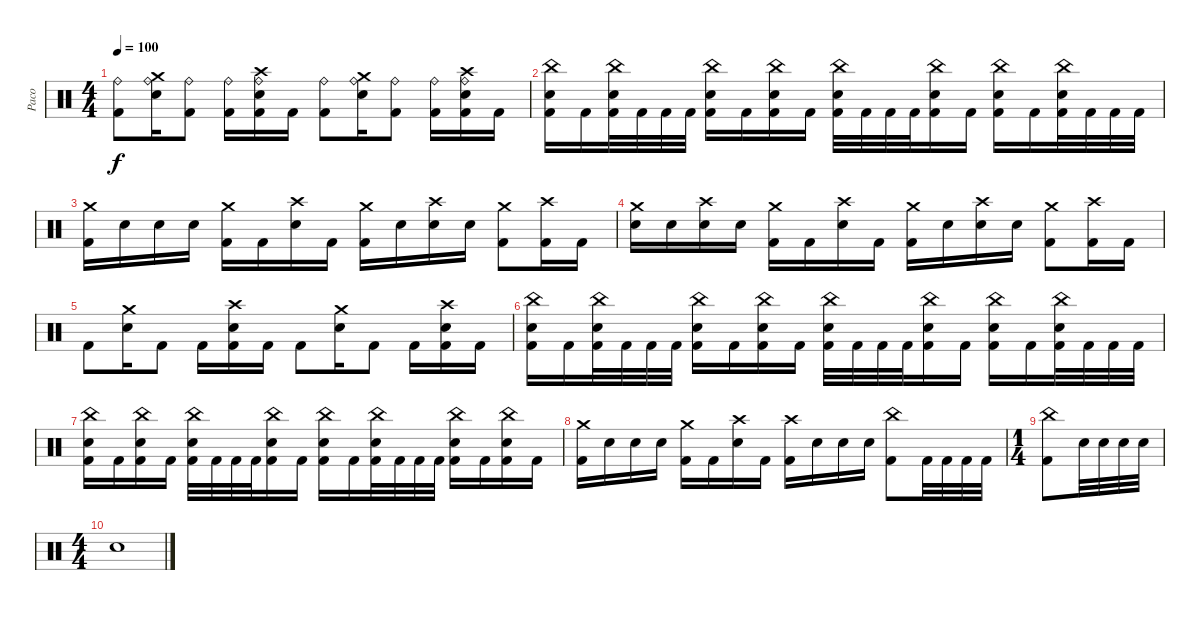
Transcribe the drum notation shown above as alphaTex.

\track ("Paco" "Paco") {instrument percussion}
\staff {score}
\articulation defaults
\ts (4 4)
\tempo 100
\clef neutral
\ks c
("Ride (bell)" "Kick (hit) 2").8{dy f} ("Crash medium (hit)" "Ride (bell)" "Electric Snare (hit)").16 ("Ride (bell)" "Kick (hit) 2").8 ("Ride (bell)" "Kick (hit) 2").16 ("Crash high (hit)" "Ride (bell)" "Electric Snare (hit)" "Kick (hit) 2").16 "Kick (hit) 2".16 ("Ride (bell)" "Kick (hit) 2").8 ("Crash medium (hit)" "Ride (bell)" "Electric Snare (hit)").16 ("Ride (bell)" "Kick (hit) 2").8 ("Ride (bell)" "Kick (hit) 2").16 ("Crash high (hit)" "Ride (bell)" "Electric Snare (hit)" "Kick (hit) 2").16 "Kick (hit) 2".16 |
("China (hit)" "Electric Snare (hit)" "Kick (hit) 2").16 "Kick (hit) 2".16 ("China (hit)" "Electric Snare (hit)" "Kick (hit) 2").32 "Kick (hit) 2".32 "Kick (hit) 2".32 "Kick (hit) 2".32 ("China (hit)" "Electric Snare (hit)" "Kick (hit) 2").16 "Kick (hit) 2".16 ("China (hit)" "Electric Snare (hit)" "Kick (hit) 2").16 "Kick (hit) 2".16 ("China (hit)" "Electric Snare (hit)" "Kick (hit) 2").32 "Kick (hit) 2".32 "Kick (hit) 2".32 "Kick (hit) 2".32 ("China (hit)" "Electric Snare (hit)" "Kick (hit) 2").16 "Kick (hit) 2".16 ("China (hit)" "Electric Snare (hit)" "Kick (hit) 2").16 "Kick (hit) 2".16 ("China (hit)" "Electric Snare (hit)" "Kick (hit) 2").32 "Kick (hit) 2".32 "Kick (hit) 2".32 "Kick (hit) 2".32 |
("Crash medium (hit)" "Kick (hit) 2").16 "Electric Snare (hit)".16 "Electric Snare (hit)".16 "Electric Snare (hit)".16 ("Crash medium (hit)" "Kick (hit) 2").16 "Kick (hit) 2".16 ("Crash high (hit)" "Electric Snare (hit)").16 "Kick (hit) 2".16 ("Crash medium (hit)" "Kick (hit) 2").16 "Electric Snare (hit)".16 ("Crash high (hit)" "Electric Snare (hit)").16 "Electric Snare (hit)".16 ("Crash medium (hit)" "Kick (hit) 2").8 ("Crash high (hit)" "Kick (hit) 2").16 "Kick (hit) 2".16 |
("Crash medium (hit)" "Electric Snare (hit)").16 "Electric Snare (hit)".16 ("Crash high (hit)" "Electric Snare (hit)").16 "Electric Snare (hit)".16 ("Crash medium (hit)" "Kick (hit) 2").16 "Kick (hit) 2".16 ("Crash high (hit)" "Electric Snare (hit)").16 "Kick (hit) 2".16 ("Crash medium (hit)" "Kick (hit) 2").16 "Electric Snare (hit)".16 ("Crash high (hit)" "Electric Snare (hit)").16 "Electric Snare (hit)".16 ("Crash medium (hit)" "Kick (hit) 2").8 ("Crash high (hit)" "Kick (hit) 2").16 "Kick (hit) 2".16 |
"Kick (hit) 2".8 ("Crash medium (hit)" "Electric Snare (hit)").16 "Kick (hit) 2".8 "Kick (hit) 2".16 ("Crash high (hit)" "Electric Snare (hit)" "Kick (hit) 2").16 "Kick (hit) 2".16 "Kick (hit) 2".8 ("Crash medium (hit)" "Electric Snare (hit)").16 "Kick (hit) 2".8 "Kick (hit) 2".16 ("Crash high (hit)" "Electric Snare (hit)" "Kick (hit) 2").16 "Kick (hit) 2".16 |
("China (hit)" "Electric Snare (hit)" "Kick (hit) 2").16 "Kick (hit) 2".16 ("China (hit)" "Electric Snare (hit)" "Kick (hit) 2").32 "Kick (hit) 2".32 "Kick (hit) 2".32 "Kick (hit) 2".32 ("China (hit)" "Electric Snare (hit)" "Kick (hit) 2").16 "Kick (hit) 2".16 ("China (hit)" "Electric Snare (hit)" "Kick (hit) 2").16 "Kick (hit) 2".16 ("China (hit)" "Electric Snare (hit)" "Kick (hit) 2").32 "Kick (hit) 2".32 "Kick (hit) 2".32 "Kick (hit) 2".32 ("China (hit)" "Electric Snare (hit)" "Kick (hit) 2").16 "Kick (hit) 2".16 ("China (hit)" "Electric Snare (hit)" "Kick (hit) 2").16 "Kick (hit) 2".16 ("China (hit)" "Electric Snare (hit)" "Kick (hit) 2").32 "Kick (hit) 2".32 "Kick (hit) 2".32 "Kick (hit) 2".32 |
("China (hit)" "Electric Snare (hit)" "Kick (hit) 2").16 "Kick (hit) 2".16 ("China (hit)" "Electric Snare (hit)" "Kick (hit) 2").16 "Kick (hit) 2".16 ("China (hit)" "Electric Snare (hit)" "Kick (hit) 2").32 "Kick (hit) 2".32 "Kick (hit) 2".32 "Kick (hit) 2".32 ("China (hit)" "Electric Snare (hit)" "Kick (hit) 2").16 "Kick (hit) 2".16 ("China (hit)" "Electric Snare (hit)" "Kick (hit) 2").16 "Kick (hit) 2".16 ("China (hit)" "Electric Snare (hit)" "Kick (hit) 2").32 "Kick (hit) 2".32 "Kick (hit) 2".32 "Kick (hit) 2".32 ("China (hit)" "Electric Snare (hit)" "Kick (hit) 2").16 "Kick (hit) 2".16 ("China (hit)" "Electric Snare (hit)" "Kick (hit) 2").16 "Kick (hit) 2".16 |
("Crash medium (hit)" "Kick (hit) 2").16 "Electric Snare (hit)".16 "Electric Snare (hit)".16 "Electric Snare (hit)".16 ("Crash medium (hit)" "Kick (hit) 2").16 "Kick (hit) 2".16 ("Crash high (hit)" "Electric Snare (hit)").16 "Kick (hit) 2".16 ("Crash high (hit)" "Kick (hit) 2").16 "Electric Snare (hit)".16 "Electric Snare (hit)".16 "Electric Snare (hit)".16 ("China (hit)" "Kick (hit) 2").8 "Kick (hit) 2".32 "Kick (hit) 2".32 "Kick (hit) 2".32 "Kick (hit) 2".32 |
\ts (1 4)
("China (hit)" "Kick (hit) 2").8 "Electric Snare (hit)".32 "Electric Snare (hit)".32 "Electric Snare (hit)".32 "Electric Snare (hit)".32 |
\ts (4 4)
"Electric Snare (hit)".1
